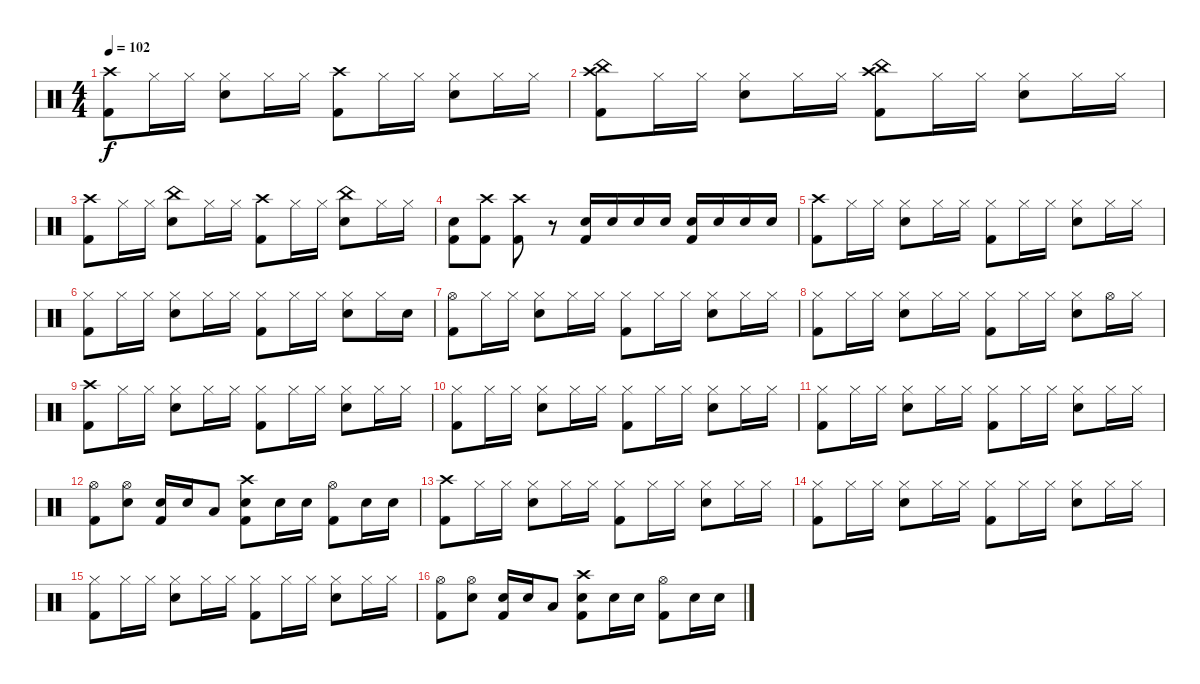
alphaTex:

\track "" {instrument percussion}
\staff {score}
\articulation defaults
\ts (4 4)
\tempo 102
\clef neutral
\ks c
("Crash high (hit)" "Kick (hit) 2").8{dy f} "Hi-Hat (closed)".16 "Hi-Hat (closed)".16 ("Hi-Hat (closed)" "Snare (hit) 2").8 "Hi-Hat (closed)".16 "Hi-Hat (closed)".16 ("Crash high (hit)" "Kick (hit) 2").8 "Hi-Hat (closed)".16 "Hi-Hat (closed)".16 ("Hi-Hat (closed)" "Snare (hit) 2").8 "Hi-Hat (closed)".16 "Hi-Hat (closed)".16 |
("Crash high (hit)" "China (hit)" "Kick (hit) 2").8 "Hi-Hat (closed)".16 "Hi-Hat (closed)".16 ("Hi-Hat (closed)" "Snare (hit) 2").8 "Hi-Hat (closed)".16 "Hi-Hat (closed)".16 ("Crash high (hit)" "China (hit)" "Kick (hit) 2").8 "Hi-Hat (closed)".16 "Hi-Hat (closed)".16 ("Hi-Hat (closed)" "Snare (hit) 2").8 "Hi-Hat (closed)".16 "Hi-Hat (closed)".16 |
("Crash high (hit)" "Kick (hit) 2").8 "Hi-Hat (closed)".16 "Hi-Hat (closed)".16 ("China (hit)" "Snare (hit) 2").8 "Hi-Hat (closed)".16 "Hi-Hat (closed)".16 ("Crash high (hit)" "Kick (hit) 2").8 "Hi-Hat (closed)".16 "Hi-Hat (closed)".16 ("China (hit)" "Snare (hit) 2").8 "Hi-Hat (closed)".16 "Hi-Hat (closed)".16 |
("Snare (hit) 2" "Kick (hit) 2").8 ("Crash high (hit)" "Kick (hit) 2").8 ("Crash high (hit)" "Kick (hit) 2").8 r.8 ("Snare (hit) 2" "Kick (hit) 2").16 "Snare (hit) 2".16 "Snare (hit) 2".16 "Snare (hit) 2".16 ("Snare (hit) 2" "Kick (hit) 2").16 "Snare (hit) 2".16 "Snare (hit) 2".16 "Snare (hit) 2".16 |
("Crash high (hit)" "Kick (hit) 2").8 "Hi-Hat (closed)".16 "Hi-Hat (closed)".16 ("Hi-Hat (closed)" "Snare (hit) 2").8 "Hi-Hat (closed)".16 "Hi-Hat (closed)".16 ("Hi-Hat (closed)" "Kick (hit) 2").8 "Hi-Hat (closed)".16 "Hi-Hat (closed)".16 ("Hi-Hat (closed)" "Snare (hit) 2").8 "Hi-Hat (closed)".16 "Hi-Hat (closed)".16 |
("Hi-Hat (closed)" "Kick (hit) 2").8 "Hi-Hat (closed)".16 "Hi-Hat (closed)".16 ("Hi-Hat (closed)" "Snare (hit) 2").8 "Hi-Hat (closed)".16 "Hi-Hat (closed)".16 ("Hi-Hat (closed)" "Kick (hit) 2").8 "Hi-Hat (closed)".16 "Hi-Hat (closed)".16 ("Hi-Hat (closed)" "Snare (hit) 2").8 "Hi-Hat (closed)".16 "Snare (hit) 2".16 |
("Hi-Hat (open)" "Kick (hit) 2").8 "Hi-Hat (closed)".16 "Hi-Hat (closed)".16 ("Hi-Hat (closed)" "Snare (hit) 2").8 "Hi-Hat (closed)".16 "Hi-Hat (closed)".16 ("Hi-Hat (closed)" "Kick (hit) 2").8 "Hi-Hat (closed)".16 "Hi-Hat (closed)".16 ("Hi-Hat (closed)" "Snare (hit) 2").8 "Hi-Hat (closed)".16 "Hi-Hat (closed)".16 |
("Hi-Hat (closed)" "Kick (hit) 2").8 "Hi-Hat (closed)".16 "Hi-Hat (closed)".16 ("Hi-Hat (closed)" "Snare (hit) 2").8 "Hi-Hat (closed)".16 "Hi-Hat (closed)".16 ("Hi-Hat (closed)" "Kick (hit) 2").8 "Hi-Hat (closed)".16 "Hi-Hat (closed)".16 ("Hi-Hat (closed)" "Snare (hit) 2").8 "Hi-Hat (open)".16 "Hi-Hat (closed)".16 |
("Crash high (hit)" "Kick (hit) 2").8 "Hi-Hat (closed)".16 "Hi-Hat (closed)".16 ("Hi-Hat (closed)" "Snare (hit) 2").8 "Hi-Hat (closed)".16 "Hi-Hat (closed)".16 ("Hi-Hat (closed)" "Kick (hit) 2").8 "Hi-Hat (closed)".16 "Hi-Hat (closed)".16 ("Hi-Hat (closed)" "Snare (hit) 2").8 "Hi-Hat (closed)".16 "Hi-Hat (closed)".16 |
("Hi-Hat (closed)" "Kick (hit) 2").8 "Hi-Hat (closed)".16 "Hi-Hat (closed)".16 ("Hi-Hat (closed)" "Snare (hit) 2").8 "Hi-Hat (closed)".16 "Hi-Hat (closed)".16 ("Hi-Hat (closed)" "Kick (hit) 2").8 "Hi-Hat (closed)".16 "Hi-Hat (closed)".16 ("Hi-Hat (closed)" "Snare (hit) 2").8 "Hi-Hat (closed)".16 "Hi-Hat (closed)".16 |
("Hi-Hat (closed)" "Kick (hit) 2").8 "Hi-Hat (closed)".16 "Hi-Hat (closed)".16 ("Hi-Hat (closed)" "Snare (hit) 2").8 "Hi-Hat (closed)".16 "Hi-Hat (closed)".16 ("Hi-Hat (closed)" "Kick (hit) 2").8 "Hi-Hat (closed)".16 "Hi-Hat (closed)".16 ("Hi-Hat (closed)" "Snare (hit) 2").8 "Hi-Hat (closed)".16 "Hi-Hat (closed)".16 |
("Hi-Hat (open)" "Kick (hit) 2").8 ("Hi-Hat (open)" "Snare (hit) 2").8 ("Snare (hit) 2" "Kick (hit) 2").16 "Snare (hit) 2".16 "Low Tom (hit)".8 ("Crash high (hit)" "Snare (hit) 2" "Kick (hit) 2").8 "Snare (hit) 2".16 "Snare (hit) 2".16 ("Hi-Hat (open)" "Kick (hit) 2").8 "Snare (hit) 2".16 "Snare (hit) 2".16 |
("Crash high (hit)" "Kick (hit) 2").8 "Hi-Hat (closed)".16 "Hi-Hat (closed)".16 ("Hi-Hat (closed)" "Snare (hit) 2").8 "Hi-Hat (closed)".16 "Hi-Hat (closed)".16 ("Hi-Hat (closed)" "Kick (hit) 2").8 "Hi-Hat (closed)".16 "Hi-Hat (closed)".16 ("Hi-Hat (closed)" "Snare (hit) 2").8 "Hi-Hat (closed)".16 "Hi-Hat (closed)".16 |
("Hi-Hat (closed)" "Kick (hit) 2").8 "Hi-Hat (closed)".16 "Hi-Hat (closed)".16 ("Hi-Hat (closed)" "Snare (hit) 2").8 "Hi-Hat (closed)".16 "Hi-Hat (closed)".16 ("Hi-Hat (closed)" "Kick (hit) 2").8 "Hi-Hat (closed)".16 "Hi-Hat (closed)".16 ("Hi-Hat (closed)" "Snare (hit) 2").8 "Hi-Hat (closed)".16 "Hi-Hat (closed)".16 |
("Hi-Hat (closed)" "Kick (hit) 2").8 "Hi-Hat (closed)".16 "Hi-Hat (closed)".16 ("Hi-Hat (closed)" "Snare (hit) 2").8 "Hi-Hat (closed)".16 "Hi-Hat (closed)".16 ("Hi-Hat (closed)" "Kick (hit) 2").8 "Hi-Hat (closed)".16 "Hi-Hat (closed)".16 ("Hi-Hat (closed)" "Snare (hit) 2").8 "Hi-Hat (closed)".16 "Hi-Hat (closed)".16 |
("Hi-Hat (open)" "Kick (hit) 2").8 ("Hi-Hat (open)" "Snare (hit) 2").8 ("Snare (hit) 2" "Kick (hit) 2").16 "Snare (hit) 2".16 "Low Tom (hit)".8 ("Crash high (hit)" "Snare (hit) 2" "Kick (hit) 2").8 "Snare (hit) 2".16 "Snare (hit) 2".16 ("Hi-Hat (open)" "Kick (hit) 2").8 "Snare (hit) 2".16 "Snare (hit) 2".16
